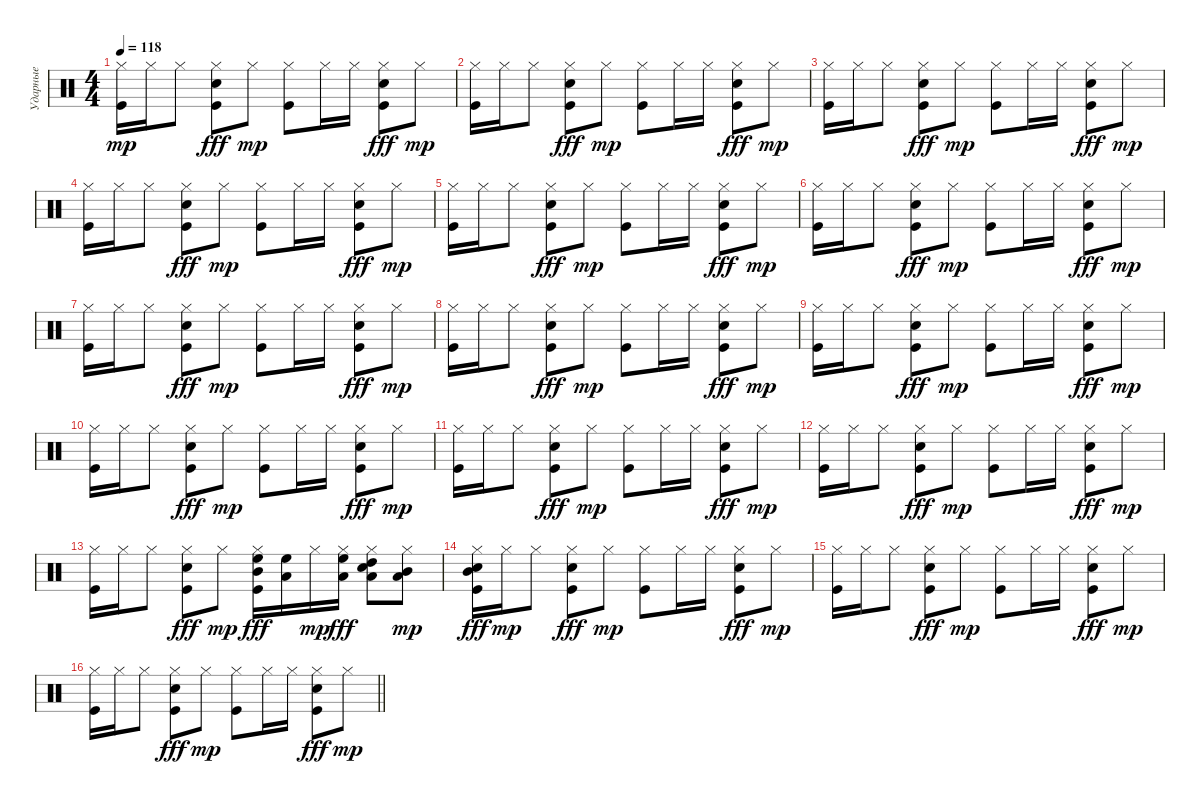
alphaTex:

\track ("Ударные" "Ударные") {instrument percussion}
\staff {score}
\articulation defaults
\ts (4 4)
\tempo 118
\clef neutral
\ks c
("Kick (hit)" "Hi-Hat (closed)").16{dy mp} "Hi-Hat (closed)".16 "Hi-Hat (closed)".8 ("Kick (hit)" "Hi-Hat (closed)" "Electric Snare (hit)").8{dy fff} "Hi-Hat (closed)".8{dy mp} ("Kick (hit)" "Hi-Hat (closed)").8 "Hi-Hat (closed)".16 "Hi-Hat (closed)".16 ("Hi-Hat (closed)" "Kick (hit)" "Electric Snare (hit)").8{dy fff} "Hi-Hat (closed)".8{dy mp} |
("Kick (hit)" "Hi-Hat (closed)").16 "Hi-Hat (closed)".16 "Hi-Hat (closed)".8 ("Kick (hit)" "Hi-Hat (closed)" "Electric Snare (hit)").8{dy fff} "Hi-Hat (closed)".8{dy mp} ("Kick (hit)" "Hi-Hat (closed)").8 "Hi-Hat (closed)".16 "Hi-Hat (closed)".16 ("Hi-Hat (closed)" "Kick (hit)" "Electric Snare (hit)").8{dy fff} "Hi-Hat (closed)".8{dy mp} |
("Kick (hit)" "Hi-Hat (closed)").16 "Hi-Hat (closed)".16 "Hi-Hat (closed)".8 ("Kick (hit)" "Hi-Hat (closed)" "Electric Snare (hit)").8{dy fff} "Hi-Hat (closed)".8{dy mp} ("Kick (hit)" "Hi-Hat (closed)").8 "Hi-Hat (closed)".16 "Hi-Hat (closed)".16 ("Hi-Hat (closed)" "Kick (hit)" "Electric Snare (hit)").8{dy fff} "Hi-Hat (closed)".8{dy mp} |
("Kick (hit)" "Hi-Hat (closed)").16 "Hi-Hat (closed)".16 "Hi-Hat (closed)".8 ("Kick (hit)" "Hi-Hat (closed)" "Electric Snare (hit)").8{dy fff} "Hi-Hat (closed)".8{dy mp} ("Kick (hit)" "Hi-Hat (closed)").8 "Hi-Hat (closed)".16 "Hi-Hat (closed)".16 ("Hi-Hat (closed)" "Kick (hit)" "Electric Snare (hit)").8{dy fff} "Hi-Hat (closed)".8{dy mp} |
("Kick (hit)" "Hi-Hat (closed)").16 "Hi-Hat (closed)".16 "Hi-Hat (closed)".8 ("Kick (hit)" "Hi-Hat (closed)" "Electric Snare (hit)").8{dy fff} "Hi-Hat (closed)".8{dy mp} ("Kick (hit)" "Hi-Hat (closed)").8 "Hi-Hat (closed)".16 "Hi-Hat (closed)".16 ("Hi-Hat (closed)" "Kick (hit)" "Electric Snare (hit)").8{dy fff} "Hi-Hat (closed)".8{dy mp} |
("Kick (hit)" "Hi-Hat (closed)").16 "Hi-Hat (closed)".16 "Hi-Hat (closed)".8 ("Kick (hit)" "Hi-Hat (closed)" "Electric Snare (hit)").8{dy fff} "Hi-Hat (closed)".8{dy mp} ("Kick (hit)" "Hi-Hat (closed)").8 "Hi-Hat (closed)".16 "Hi-Hat (closed)".16 ("Hi-Hat (closed)" "Kick (hit)" "Electric Snare (hit)").8{dy fff} "Hi-Hat (closed)".8{dy mp} |
("Kick (hit)" "Hi-Hat (closed)").16 "Hi-Hat (closed)".16 "Hi-Hat (closed)".8 ("Kick (hit)" "Hi-Hat (closed)" "Electric Snare (hit)").8{dy fff} "Hi-Hat (closed)".8{dy mp} ("Kick (hit)" "Hi-Hat (closed)").8 "Hi-Hat (closed)".16 "Hi-Hat (closed)".16 ("Hi-Hat (closed)" "Kick (hit)" "Electric Snare (hit)").8{dy fff} "Hi-Hat (closed)".8{dy mp} |
("Kick (hit)" "Hi-Hat (closed)").16 "Hi-Hat (closed)".16 "Hi-Hat (closed)".8 ("Kick (hit)" "Hi-Hat (closed)" "Electric Snare (hit)").8{dy fff} "Hi-Hat (closed)".8{dy mp} ("Kick (hit)" "Hi-Hat (closed)").8 "Hi-Hat (closed)".16 "Hi-Hat (closed)".16 ("Hi-Hat (closed)" "Kick (hit)" "Electric Snare (hit)").8{dy fff} "Hi-Hat (closed)".8{dy mp} |
("Kick (hit)" "Hi-Hat (closed)").16 "Hi-Hat (closed)".16 "Hi-Hat (closed)".8 ("Kick (hit)" "Hi-Hat (closed)" "Electric Snare (hit)").8{dy fff} "Hi-Hat (closed)".8{dy mp} ("Kick (hit)" "Hi-Hat (closed)").8 "Hi-Hat (closed)".16 "Hi-Hat (closed)".16 ("Hi-Hat (closed)" "Kick (hit)" "Electric Snare (hit)").8{dy fff} "Hi-Hat (closed)".8{dy mp} |
("Kick (hit)" "Hi-Hat (closed)").16 "Hi-Hat (closed)".16 "Hi-Hat (closed)".8 ("Kick (hit)" "Hi-Hat (closed)" "Electric Snare (hit)").8{dy fff} "Hi-Hat (closed)".8{dy mp} ("Kick (hit)" "Hi-Hat (closed)").8 "Hi-Hat (closed)".16 "Hi-Hat (closed)".16 ("Hi-Hat (closed)" "Kick (hit)" "Electric Snare (hit)").8{dy fff} "Hi-Hat (closed)".8{dy mp} |
("Kick (hit)" "Hi-Hat (closed)").16 "Hi-Hat (closed)".16 "Hi-Hat (closed)".8 ("Kick (hit)" "Hi-Hat (closed)" "Electric Snare (hit)").8{dy fff} "Hi-Hat (closed)".8{dy mp} ("Kick (hit)" "Hi-Hat (closed)").8 "Hi-Hat (closed)".16 "Hi-Hat (closed)".16 ("Hi-Hat (closed)" "Kick (hit)" "Electric Snare (hit)").8{dy fff} "Hi-Hat (closed)".8{dy mp} |
("Kick (hit)" "Hi-Hat (closed)").16 "Hi-Hat (closed)".16 "Hi-Hat (closed)".8 ("Kick (hit)" "Hi-Hat (closed)" "Electric Snare (hit)").8{dy fff} "Hi-Hat (closed)".8{dy mp} ("Kick (hit)" "Hi-Hat (closed)").8 "Hi-Hat (closed)".16 "Hi-Hat (closed)".16 ("Hi-Hat (closed)" "Kick (hit)" "Electric Snare (hit)").8{dy fff} "Hi-Hat (closed)".8{dy mp} |
("Kick (hit)" "Hi-Hat (closed)").16 "Hi-Hat (closed)".16 "Hi-Hat (closed)".8 ("Kick (hit)" "Hi-Hat (closed)" "Electric Snare (hit)").8{dy fff} "Hi-Hat (closed)".8{dy mp} ("Kick (hit)" "Hi-Hat (closed)" "Mid Tom (hit)" "High Floor Tom (hit)").16{dy fff} ("Low Tom (hit)" "High Floor Tom (hit)").16 "Hi-Hat (closed)".16{dy mp} ("Hi-Hat (closed)" "Low Tom (hit)" "High Floor Tom (hit)").16{dy fff} ("High Tom (hit)" "Low Tom (hit)" "Hi-Hat (closed)" "Electric Snare (hit)").8 ("Low Tom (hit)" "Mid Tom (hit)" "Hi-Hat (closed)").8{dy mp} |
("Kick (hit)" "Hi-Hat (closed)" "Snare (hit) 2" "Mid Tom (hit)").16{dy fff} "Hi-Hat (closed)".16{dy mp} "Hi-Hat (closed)".8 ("Kick (hit)" "Hi-Hat (closed)" "Electric Snare (hit)").8{dy fff} "Hi-Hat (closed)".8{dy mp} ("Kick (hit)" "Hi-Hat (closed)").8 "Hi-Hat (closed)".16 "Hi-Hat (closed)".16 ("Hi-Hat (closed)" "Kick (hit)" "Electric Snare (hit)").8{dy fff} "Hi-Hat (closed)".8{dy mp} |
("Kick (hit)" "Hi-Hat (closed)").16 "Hi-Hat (closed)".16 "Hi-Hat (closed)".8 ("Kick (hit)" "Hi-Hat (closed)" "Electric Snare (hit)").8{dy fff} "Hi-Hat (closed)".8{dy mp} ("Kick (hit)" "Hi-Hat (closed)").8 "Hi-Hat (closed)".16 "Hi-Hat (closed)".16 ("Hi-Hat (closed)" "Kick (hit)" "Electric Snare (hit)").8{dy fff} "Hi-Hat (closed)".8{dy mp} |
\barLineRight lightlight
("Kick (hit)" "Hi-Hat (closed)").16 "Hi-Hat (closed)".16 "Hi-Hat (closed)".8 ("Kick (hit)" "Hi-Hat (closed)" "Electric Snare (hit)").8{dy fff} "Hi-Hat (closed)".8{dy mp} ("Kick (hit)" "Hi-Hat (closed)").8 "Hi-Hat (closed)".16 "Hi-Hat (closed)".16 ("Hi-Hat (closed)" "Kick (hit)" "Electric Snare (hit)").8{dy fff} "Hi-Hat (closed)".8{dy mp}
